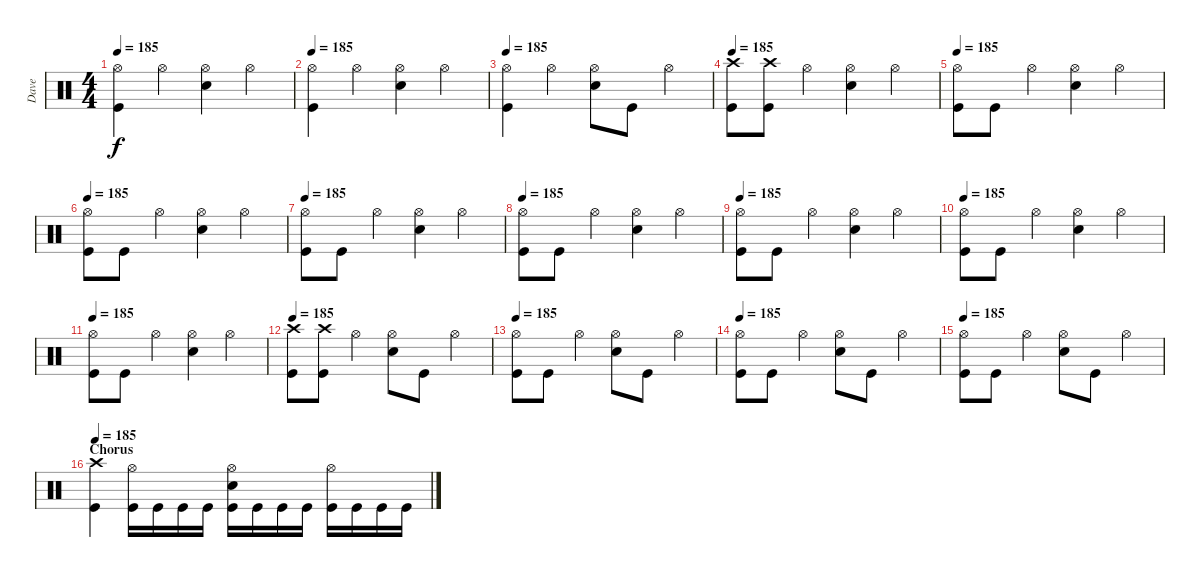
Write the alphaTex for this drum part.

\track ("Dave" "Dave") {instrument percussion}
\staff {score}
\articulation defaults
\ts (4 4)
\tempo 185
\clef neutral
\ks c
("Hi-Hat (open)" "Kick (hit)").4{dy f} "Hi-Hat (open)".4 ("Hi-Hat (open)" "Snare (hit) 2").4 "Hi-Hat (open)".4 |
\tempo 185
("Hi-Hat (open)" "Kick (hit)").4 "Hi-Hat (open)".4 ("Hi-Hat (open)" "Snare (hit) 2").4 "Hi-Hat (open)".4 |
\tempo 185
("Hi-Hat (open)" "Kick (hit)").4 "Hi-Hat (open)".4 ("Hi-Hat (open)" "Snare (hit) 2").8 "Kick (hit)".8 "Hi-Hat (open)".4 |
\tempo 185
("Crash high (hit)" "Kick (hit)").8 ("Crash high (hit)" "Kick (hit)").8 "Hi-Hat (open)".4 ("Hi-Hat (open)" "Snare (hit) 2").4 "Hi-Hat (open)".4 |
\tempo 185
("Hi-Hat (open)" "Kick (hit)").8 "Kick (hit)".8 "Hi-Hat (open)".4 ("Hi-Hat (open)" "Snare (hit) 2").4 "Hi-Hat (open)".4 |
\tempo 185
("Hi-Hat (open)" "Kick (hit)").8 "Kick (hit)".8 "Hi-Hat (open)".4 ("Hi-Hat (open)" "Snare (hit) 2").4 "Hi-Hat (open)".4 |
\tempo 185
("Hi-Hat (open)" "Kick (hit)").8 "Kick (hit)".8 "Hi-Hat (open)".4 ("Hi-Hat (open)" "Snare (hit) 2").4 "Hi-Hat (open)".4 |
\tempo 185
("Hi-Hat (open)" "Kick (hit)").8 "Kick (hit)".8 "Hi-Hat (open)".4 ("Hi-Hat (open)" "Snare (hit) 2").4 "Hi-Hat (open)".4 |
\tempo 185
("Hi-Hat (open)" "Kick (hit)").8 "Kick (hit)".8 "Hi-Hat (open)".4 ("Hi-Hat (open)" "Snare (hit) 2").4 "Hi-Hat (open)".4 |
\tempo 185
("Hi-Hat (open)" "Kick (hit)").8 "Kick (hit)".8 "Hi-Hat (open)".4 ("Hi-Hat (open)" "Snare (hit) 2").4 "Hi-Hat (open)".4 |
\tempo 185
("Hi-Hat (open)" "Kick (hit)").8 "Kick (hit)".8 "Hi-Hat (open)".4 ("Hi-Hat (open)" "Snare (hit) 2").4 "Hi-Hat (open)".4 |
\tempo 185
("Crash high (hit)" "Kick (hit)").8 ("Crash high (hit)" "Kick (hit)").8 "Hi-Hat (open)".4 ("Hi-Hat (open)" "Snare (hit) 2").8 "Kick (hit)".8 "Hi-Hat (open)".4 |
\tempo 185
("Hi-Hat (open)" "Kick (hit)").8 "Kick (hit)".8 "Hi-Hat (open)".4 ("Hi-Hat (open)" "Snare (hit) 2").8 "Kick (hit)".8 "Hi-Hat (open)".4 |
\tempo 185
("Hi-Hat (open)" "Kick (hit)").8 "Kick (hit)".8 "Hi-Hat (open)".4 ("Hi-Hat (open)" "Snare (hit) 2").8 "Kick (hit)".8 "Hi-Hat (open)".4 |
\tempo 185
("Hi-Hat (open)" "Kick (hit)").8 "Kick (hit)".8 "Hi-Hat (open)".4 ("Hi-Hat (open)" "Snare (hit) 2").8 "Kick (hit)".8 "Hi-Hat (open)".4 |
\section ("" "Chorus")
\tempo 185
("Crash high (hit)" "Kick (hit)").4 ("Hi-Hat (open)" "Kick (hit)").16 "Kick (hit)".16 "Kick (hit)".16 "Kick (hit)".16 ("Hi-Hat (open)" "Snare (hit) 2" "Kick (hit)").16 "Kick (hit)".16 "Kick (hit)".16 "Kick (hit)".16 ("Hi-Hat (open)" "Kick (hit)").16 "Kick (hit)".16 "Kick (hit)".16 "Kick (hit)".16
